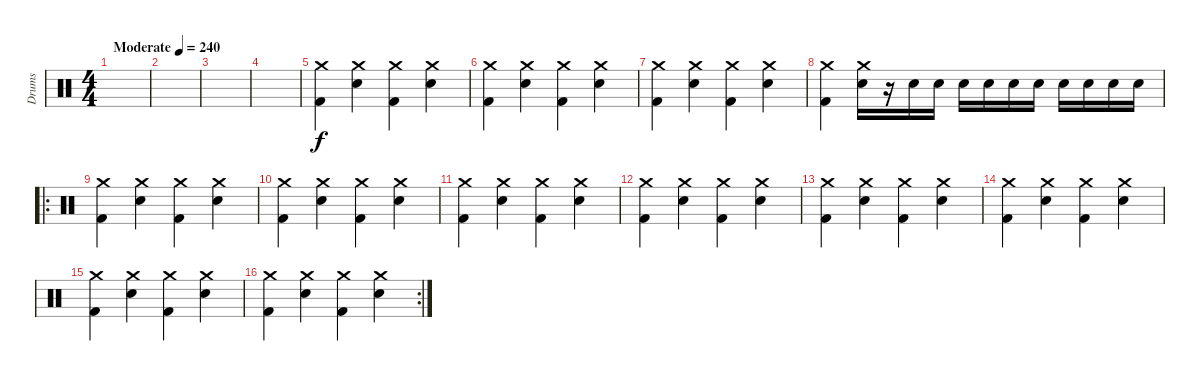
\track ("Drums" "Drums") {instrument percussion}
\staff {score}
\articulation defaults
\ts (4 4)
\tempo (240 "Moderate")
\clef neutral
\ks c
|
|
|
|
("Crash medium (hit)" "Kick (hit) 2").4 ("Crash medium (hit)" "Electric Snare (hit)").4 ("Crash medium (hit)" "Kick (hit) 2").4 ("Crash medium (hit)" "Electric Snare (hit)").4 |
("Crash medium (hit)" "Kick (hit) 2").4 ("Crash medium (hit)" "Electric Snare (hit)").4 ("Crash medium (hit)" "Kick (hit) 2").4 ("Crash medium (hit)" "Electric Snare (hit)").4 |
("Crash medium (hit)" "Kick (hit) 2").4 ("Crash medium (hit)" "Electric Snare (hit)").4 ("Crash medium (hit)" "Kick (hit) 2").4 ("Crash medium (hit)" "Electric Snare (hit)").4 |
("Crash medium (hit)" "Kick (hit) 2").4 ("Crash medium (hit)" "Electric Snare (hit)").16 r.16 "Electric Snare (hit)".16 "Electric Snare (hit)".16 "Electric Snare (hit)".16 "Electric Snare (hit)".16 "Electric Snare (hit)".16 "Electric Snare (hit)".16 "Electric Snare (hit)".16 "Electric Snare (hit)".16 "Electric Snare (hit)".16 "Electric Snare (hit)".16 |
\ro
("Crash medium (hit)" "Kick (hit) 2").4 ("Crash medium (hit)" "Electric Snare (hit)").4 ("Crash medium (hit)" "Kick (hit) 2").4 ("Crash medium (hit)" "Electric Snare (hit)").4 |
("Crash medium (hit)" "Kick (hit) 2").4 ("Crash medium (hit)" "Electric Snare (hit)").4 ("Crash medium (hit)" "Kick (hit) 2").4 ("Crash medium (hit)" "Electric Snare (hit)").4 |
("Crash medium (hit)" "Kick (hit) 2").4 ("Crash medium (hit)" "Electric Snare (hit)").4 ("Crash medium (hit)" "Kick (hit) 2").4 ("Crash medium (hit)" "Electric Snare (hit)").4 |
("Crash medium (hit)" "Kick (hit) 2").4 ("Crash medium (hit)" "Electric Snare (hit)").4 ("Crash medium (hit)" "Kick (hit) 2").4 ("Crash medium (hit)" "Electric Snare (hit)").4 |
("Crash medium (hit)" "Kick (hit) 2").4 ("Crash medium (hit)" "Electric Snare (hit)").4 ("Crash medium (hit)" "Kick (hit) 2").4 ("Crash medium (hit)" "Electric Snare (hit)").4 |
("Crash medium (hit)" "Kick (hit) 2").4 ("Crash medium (hit)" "Electric Snare (hit)").4 ("Crash medium (hit)" "Kick (hit) 2").4 ("Crash medium (hit)" "Electric Snare (hit)").4 |
("Crash medium (hit)" "Kick (hit) 2").4 ("Crash medium (hit)" "Electric Snare (hit)").4 ("Crash medium (hit)" "Kick (hit) 2").4 ("Crash medium (hit)" "Electric Snare (hit)").4 |
\rc 2
("Crash medium (hit)" "Kick (hit) 2").4 ("Crash medium (hit)" "Electric Snare (hit)").4 ("Crash medium (hit)" "Kick (hit) 2").4 ("Crash medium (hit)" "Electric Snare (hit)").4
